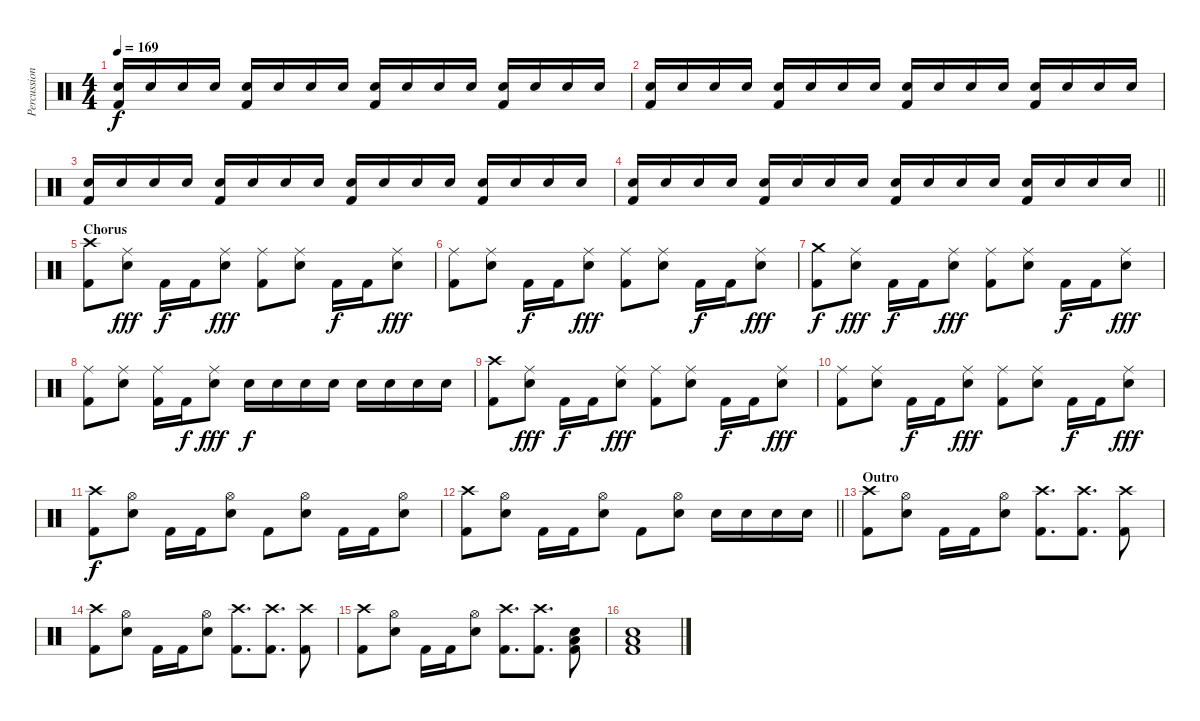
\track ("Percussion" "Percussion") {instrument percussion}
\staff {score}
\articulation defaults
\ts (4 4)
\tempo 169
\clef neutral
\ks c
("Electric Snare (hit)" "Kick (hit) 2").16{dy f} "Electric Snare (hit)".16 "Electric Snare (hit)".16 "Electric Snare (hit)".16 ("Electric Snare (hit)" "Kick (hit) 2").16 "Electric Snare (hit)".16 "Electric Snare (hit)".16 "Electric Snare (hit)".16 ("Electric Snare (hit)" "Kick (hit) 2").16 "Electric Snare (hit)".16 "Electric Snare (hit)".16 "Electric Snare (hit)".16 ("Electric Snare (hit)" "Kick (hit) 2").16 "Electric Snare (hit)".16 "Electric Snare (hit)".16 "Electric Snare (hit)".16 |
("Electric Snare (hit)" "Kick (hit) 2").16 "Electric Snare (hit)".16 "Electric Snare (hit)".16 "Electric Snare (hit)".16 ("Electric Snare (hit)" "Kick (hit) 2").16 "Electric Snare (hit)".16 "Electric Snare (hit)".16 "Electric Snare (hit)".16 ("Electric Snare (hit)" "Kick (hit) 2").16 "Electric Snare (hit)".16 "Electric Snare (hit)".16 "Electric Snare (hit)".16 ("Electric Snare (hit)" "Kick (hit) 2").16 "Electric Snare (hit)".16 "Electric Snare (hit)".16 "Electric Snare (hit)".16 |
("Electric Snare (hit)" "Kick (hit) 2").16 "Electric Snare (hit)".16 "Electric Snare (hit)".16 "Electric Snare (hit)".16 ("Electric Snare (hit)" "Kick (hit) 2").16 "Electric Snare (hit)".16 "Electric Snare (hit)".16 "Electric Snare (hit)".16 ("Electric Snare (hit)" "Kick (hit) 2").16 "Electric Snare (hit)".16 "Electric Snare (hit)".16 "Electric Snare (hit)".16 ("Electric Snare (hit)" "Kick (hit) 2").16 "Electric Snare (hit)".16 "Electric Snare (hit)".16 "Electric Snare (hit)".16 |
\barLineRight lightlight
("Electric Snare (hit)" "Kick (hit) 2").16 "Electric Snare (hit)".16 "Electric Snare (hit)".16 "Electric Snare (hit)".16 ("Electric Snare (hit)" "Kick (hit) 2").16 "Electric Snare (hit)".16 "Electric Snare (hit)".16 "Electric Snare (hit)".16 ("Electric Snare (hit)" "Kick (hit) 2").16 "Electric Snare (hit)".16 "Electric Snare (hit)".16 "Electric Snare (hit)".16 ("Electric Snare (hit)" "Kick (hit) 2").16 "Electric Snare (hit)".16 "Electric Snare (hit)".16 "Electric Snare (hit)".16 |
\section ("" "Chorus")
("Crash high (hit)" "Kick (hit) 2").8 ("Ride (middle)" "Electric Snare (hit)").8{dy fff} "Kick (hit) 2".16{dy f} "Kick (hit) 2".16 ("Ride (middle)" "Electric Snare (hit)").8{dy fff} ("Ride (middle)" "Kick (hit) 2").8 ("Ride (middle)" "Electric Snare (hit)").8 "Kick (hit) 2".16{dy f} "Kick (hit) 2".16 ("Ride (middle)" "Electric Snare (hit)").8{dy fff} |
("Ride (middle)" "Kick (hit) 2").8 ("Ride (middle)" "Electric Snare (hit)").8 "Kick (hit) 2".16{dy f} "Kick (hit) 2".16 ("Ride (middle)" "Electric Snare (hit)").8{dy fff} ("Ride (middle)" "Kick (hit) 2").8 ("Ride (middle)" "Electric Snare (hit)").8 "Kick (hit) 2".16{dy f} "Kick (hit) 2".16 ("Ride (middle)" "Electric Snare (hit)").8{dy fff} |
("Crash medium (hit)" "Kick (hit) 2").8{dy f} ("Ride (middle)" "Electric Snare (hit)").8{dy fff} "Kick (hit) 2".16{dy f} "Kick (hit) 2".16 ("Ride (middle)" "Electric Snare (hit)").8{dy fff} ("Ride (middle)" "Kick (hit) 2").8 ("Ride (middle)" "Electric Snare (hit)").8 "Kick (hit) 2".16{dy f} "Kick (hit) 2".16 ("Ride (middle)" "Electric Snare (hit)").8{dy fff} |
("Ride (middle)" "Kick (hit) 2").8 ("Ride (middle)" "Electric Snare (hit)").8 ("Ride (middle)" "Kick (hit) 2").16 "Kick (hit) 2".16{dy f} ("Ride (middle)" "Electric Snare (hit)").8{dy fff} "Electric Snare (hit)".16{dy f} "Electric Snare (hit)".16 "Electric Snare (hit)".16 "Electric Snare (hit)".16 "Electric Snare (hit)".16 "Electric Snare (hit)".16 "Electric Snare (hit)".16 "Electric Snare (hit)".16 |
("Crash high (hit)" "Kick (hit) 2").8 ("Ride (middle)" "Electric Snare (hit)").8{dy fff} "Kick (hit) 2".16{dy f} "Kick (hit) 2".16 ("Ride (middle)" "Electric Snare (hit)").8{dy fff} ("Ride (middle)" "Kick (hit) 2").8 ("Ride (middle)" "Electric Snare (hit)").8 "Kick (hit) 2".16{dy f} "Kick (hit) 2".16 ("Ride (middle)" "Electric Snare (hit)").8{dy fff} |
("Ride (middle)" "Kick (hit) 2").8 ("Ride (middle)" "Electric Snare (hit)").8 "Kick (hit) 2".16{dy f} "Kick (hit) 2".16 ("Ride (middle)" "Electric Snare (hit)").8{dy fff} ("Ride (middle)" "Kick (hit) 2").8 ("Ride (middle)" "Electric Snare (hit)").8 "Kick (hit) 2".16{dy f} "Kick (hit) 2".16 ("Ride (middle)" "Electric Snare (hit)").8{dy fff} |
("Crash high (hit)" "Kick (hit) 2").8{dy f} ("Hi-Hat (open)" "Electric Snare (hit)").8 "Kick (hit) 2".16 "Kick (hit) 2".16 ("Hi-Hat (open)" "Electric Snare (hit)").8 "Kick (hit) 2".8 ("Hi-Hat (open)" "Electric Snare (hit)").8 "Kick (hit) 2".16 "Kick (hit) 2".16 ("Hi-Hat (open)" "Electric Snare (hit)").8 |
\barLineRight lightlight
("Crash high (hit)" "Kick (hit) 2").8 ("Hi-Hat (open)" "Electric Snare (hit)").8 "Kick (hit) 2".16 "Kick (hit) 2".16 ("Hi-Hat (open)" "Electric Snare (hit)").8 "Kick (hit) 2".8 ("Hi-Hat (open)" "Electric Snare (hit)").8 "Electric Snare (hit)".16 "Electric Snare (hit)".16 "Electric Snare (hit)".16 "Electric Snare (hit)".16 |
\section ("" "Outro")
("Crash high (hit)" "Kick (hit) 2").8 ("Hi-Hat (open)" "Electric Snare (hit)").8 "Kick (hit) 2".16 "Kick (hit) 2".16 ("Hi-Hat (open)" "Electric Snare (hit)").8 ("Crash high (hit)" "Kick (hit) 2").8{d} ("Crash high (hit)" "Kick (hit) 2").8{d} ("Crash high (hit)" "Kick (hit) 2").8 |
("Crash high (hit)" "Kick (hit) 2").8 ("Hi-Hat (open)" "Electric Snare (hit)").8 "Kick (hit) 2".16 "Kick (hit) 2".16 ("Hi-Hat (open)" "Electric Snare (hit)").8 ("Crash high (hit)" "Kick (hit) 2").8{d} ("Crash high (hit)" "Kick (hit) 2").8{d} ("Crash high (hit)" "Kick (hit) 2").8 |
("Crash high (hit)" "Kick (hit) 2").8 ("Hi-Hat (open)" "Electric Snare (hit)").8 "Kick (hit) 2".16 "Kick (hit) 2".16 ("Hi-Hat (open)" "Electric Snare (hit)").8 ("Crash high (hit)" "Kick (hit) 2").8{d} ("Crash high (hit)" "Kick (hit) 2").8{d} ("Low Floor Tom (hit)" "Electric Snare (hit)" "Kick (hit) 2").8 |
("Low Floor Tom (hit)" "Electric Snare (hit)" "Kick (hit) 2").1
